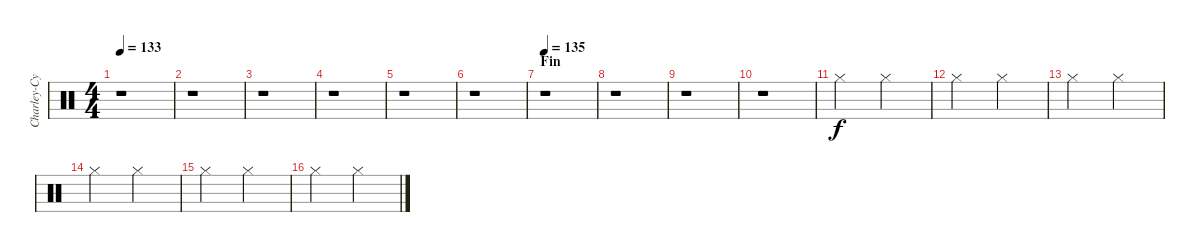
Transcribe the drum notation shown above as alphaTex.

\track ("Charley-Cymbales" "Charley-Cy") {instrument percussion}
\staff {score}
\articulation defaults
\ts (4 4)
\tempo 133
\clef neutral
\ks c
r.1{dy mf} |
r.1 |
r.1 |
r.1 |
r.1 |
r.1 |
\section ("" "Fin")
\tempo 137
\tempo 135
r.1 |
r.1 |
r.1 |
r.1 |
"Hi-Hat (closed)".2{dy f} "Hi-Hat (closed)".2 |
"Hi-Hat (closed)".2 "Hi-Hat (closed)".2 |
"Hi-Hat (closed)".2 "Hi-Hat (closed)".2 |
"Hi-Hat (closed)".2 "Hi-Hat (closed)".2 |
"Hi-Hat (closed)".2 "Hi-Hat (closed)".2 |
"Hi-Hat (closed)".2 "Hi-Hat (closed)".2
